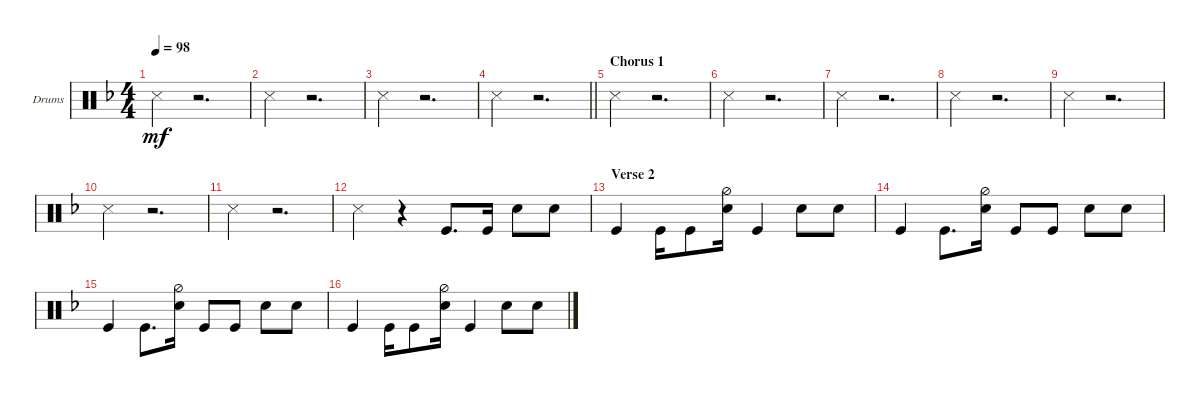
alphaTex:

\defaultSystemsLayout 4
\bracketExtendMode groupsimilarinstruments
\firstSystemTrackNameOrientation horizontal
\otherSystemsTrackNameOrientation horizontal
\track ("Drumkit" "Drums") {instrument percussion}
\staff {score}
\articulation defaults
\ts (4 4)
\tempo 98
\clef neutral
\scale
0.333333
\ks dminor "Snare (side stick) 3".4{dy mf}
r.2{d} |
\scale
0.333333 "Snare (side stick) 3".4 r.2{d} |
\scale
0.333333 "Snare (side stick) 3".4 r.2{d} |
\scale
0.333333
\barLineRight lightlight "Snare (side stick) 3".4
r.2{d} |
\section ("" "Chorus 1")
\scale
0.333333 "Snare (side stick) 3".4 r.2{d} |
\scale
0.333333 "Snare (side stick) 3".4 r.2{d} |
\scale
0.333333 "Snare (side stick) 3".4 r.2{d} |
\scale
0.333333 "Snare (side stick) 3".4 r.2{d} |
\scale
0.333333 "Snare (side stick) 3".4 r.2{d} |
\scale
0.333333 "Snare (side stick) 3".4 r.2{d} |
\scale
0.333333 "Snare (side stick) 3".4 r.2{d} |
\scale
0.333333 "Snare (side stick) 3".4 r.4 "Kick (hit)".8{d} "Kick (hit)".16 "Snare (hit) 2".8 "Snare (hit) 2".8 |
\section ("" "Verse 2")
\scale
0.333333 "Kick (hit)".4 "Kick (hit)".16 "Kick (hit)".8 ("Snare (hit) 2" "Hi-Hat (half)").16 "Kick (hit)".4 "Snare (hit) 2".8 "Snare (hit) 2".8 |
\scale
0.333333 "Kick (hit)".4 "Kick (hit)".8{d} ("Snare (hit) 2" "Hi-Hat (half)").16 "Kick (hit)".8 "Kick (hit)".8 "Snare (hit) 2".8 "Snare (hit) 2".8 |
\scale
0.333333 "Kick (hit)".4 "Kick (hit)".8{d} ("Snare (hit) 2" "Hi-Hat (half)").16 "Kick (hit)".8 "Kick (hit)".8 "Snare (hit) 2".8 "Snare (hit) 2".8 |
\scale
0.333333 "Kick (hit)".4 "Kick (hit)".16 "Kick (hit)".8 ("Snare (hit) 2" "Hi-Hat (half)").16 "Kick (hit)".4 "Snare (hit) 2".8 "Snare (hit) 2".8
